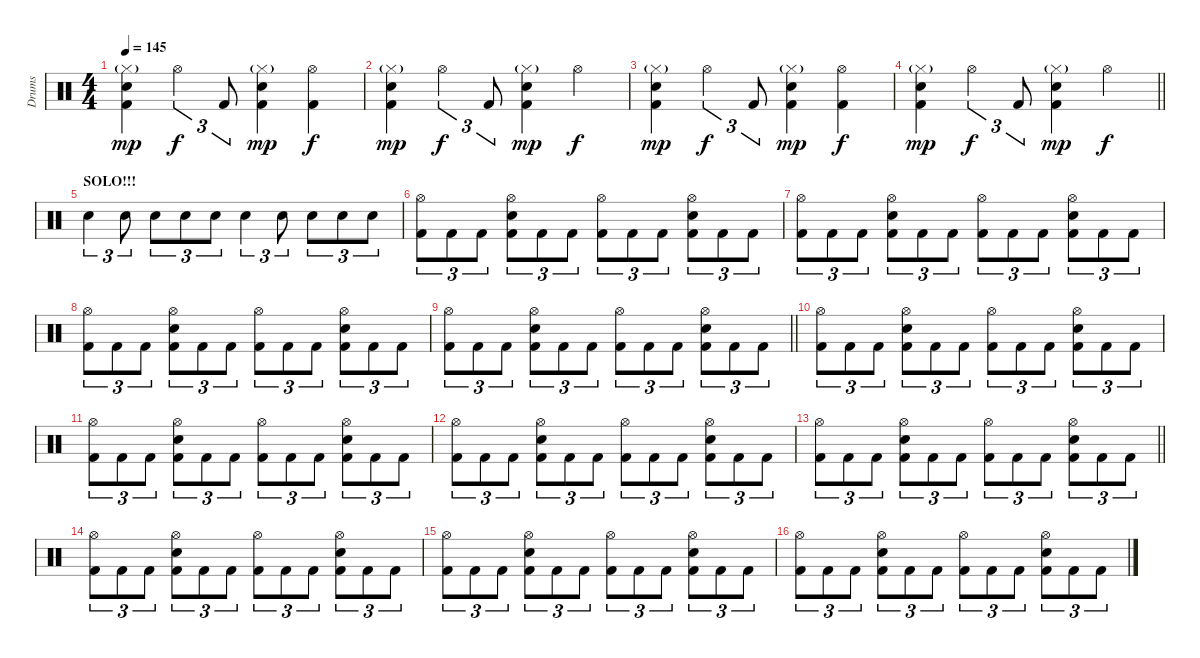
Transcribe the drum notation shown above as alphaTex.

\track ("Drums" "Drums") {instrument percussion}
\staff {score}
\articulation defaults
\ts (4 4)
\tempo 145
\clef neutral
\ks c
("Hi-Hat (closed)"{g} "Electric Snare (hit)" "Kick (hit) 2").4{dy mp} "Hi-Hat (open)".4{tu (3 2) dy f} "Kick (hit) 2".8{tu (3 2)} ("Hi-Hat (closed)"{g} "Electric Snare (hit)" "Kick (hit) 2").4{dy mp} ("Hi-Hat (open)" "Kick (hit) 2").4{dy f} |
("Hi-Hat (closed)"{g} "Electric Snare (hit)" "Kick (hit) 2").4{dy mp} "Hi-Hat (open)".4{tu (3 2) dy f} "Kick (hit) 2".8{tu (3 2)} ("Hi-Hat (closed)"{g} "Electric Snare (hit)" "Kick (hit) 2").4{dy mp} "Hi-Hat (open)".4{dy f} |
("Hi-Hat (closed)"{g} "Electric Snare (hit)" "Kick (hit) 2").4{dy mp} "Hi-Hat (open)".4{tu (3 2) dy f} "Kick (hit) 2".8{tu (3 2)} ("Hi-Hat (closed)"{g} "Electric Snare (hit)" "Kick (hit) 2").4{dy mp} ("Hi-Hat (open)" "Kick (hit) 2").4{dy f} |
\barLineRight lightlight
("Hi-Hat (closed)"{g} "Electric Snare (hit)" "Kick (hit) 2").4{dy mp} "Hi-Hat (open)".4{tu (3 2) dy f} "Kick (hit) 2".8{tu (3 2)} ("Hi-Hat (closed)"{g} "Electric Snare (hit)" "Kick (hit) 2").4{dy mp} "Hi-Hat (open)".4{dy f} |
\section ("" "SOLO!!!")
"Electric Snare (hit)".4{tu (3 2)} "Electric Snare (hit)".8{tu (3 2)} "Electric Snare (hit)".8{tu (3 2)} "Electric Snare (hit)".8{tu (3 2)} "Electric Snare (hit)".8{tu (3 2)} "Electric Snare (hit)".4{tu (3 2)} "Electric Snare (hit)".8{tu (3 2)} "Electric Snare (hit)".8{tu (3 2)} "Electric Snare (hit)".8{tu (3 2)} "Electric Snare (hit)".8{tu (3 2)} |
("Hi-Hat (open)" "Kick (hit) 2").8{tu (3 2)} "Kick (hit) 2".8{tu (3 2)} "Kick (hit) 2".8{tu (3 2)} ("Hi-Hat (open)" "Electric Snare (hit)" "Kick (hit) 2").8{tu (3 2)} "Kick (hit) 2".8{tu (3 2)} "Kick (hit) 2".8{tu (3 2)} ("Hi-Hat (open)" "Kick (hit) 2").8{tu (3 2)} "Kick (hit) 2".8{tu (3 2)} "Kick (hit) 2".8{tu (3 2)} ("Hi-Hat (open)" "Electric Snare (hit)" "Kick (hit) 2").8{tu (3 2)} "Kick (hit) 2".8{tu (3 2)} "Kick (hit) 2".8{tu (3 2)} |
("Hi-Hat (open)" "Kick (hit) 2").8{tu (3 2)} "Kick (hit) 2".8{tu (3 2)} "Kick (hit) 2".8{tu (3 2)} ("Hi-Hat (open)" "Electric Snare (hit)" "Kick (hit) 2").8{tu (3 2)} "Kick (hit) 2".8{tu (3 2)} "Kick (hit) 2".8{tu (3 2)} ("Hi-Hat (open)" "Kick (hit) 2").8{tu (3 2)} "Kick (hit) 2".8{tu (3 2)} "Kick (hit) 2".8{tu (3 2)} ("Hi-Hat (open)" "Electric Snare (hit)" "Kick (hit) 2").8{tu (3 2)} "Kick (hit) 2".8{tu (3 2)} "Kick (hit) 2".8{tu (3 2)} |
("Hi-Hat (open)" "Kick (hit) 2").8{tu (3 2)} "Kick (hit) 2".8{tu (3 2)} "Kick (hit) 2".8{tu (3 2)} ("Hi-Hat (open)" "Electric Snare (hit)" "Kick (hit) 2").8{tu (3 2)} "Kick (hit) 2".8{tu (3 2)} "Kick (hit) 2".8{tu (3 2)} ("Hi-Hat (open)" "Kick (hit) 2").8{tu (3 2)} "Kick (hit) 2".8{tu (3 2)} "Kick (hit) 2".8{tu (3 2)} ("Hi-Hat (open)" "Electric Snare (hit)" "Kick (hit) 2").8{tu (3 2)} "Kick (hit) 2".8{tu (3 2)} "Kick (hit) 2".8{tu (3 2)} |
\barLineRight lightlight
("Hi-Hat (open)" "Kick (hit) 2").8{tu (3 2)} "Kick (hit) 2".8{tu (3 2)} "Kick (hit) 2".8{tu (3 2)} ("Hi-Hat (open)" "Electric Snare (hit)" "Kick (hit) 2").8{tu (3 2)} "Kick (hit) 2".8{tu (3 2)} "Kick (hit) 2".8{tu (3 2)} ("Hi-Hat (open)" "Kick (hit) 2").8{tu (3 2)} "Kick (hit) 2".8{tu (3 2)} "Kick (hit) 2".8{tu (3 2)} ("Hi-Hat (open)" "Electric Snare (hit)" "Kick (hit) 2").8{tu (3 2)} "Kick (hit) 2".8{tu (3 2)} "Kick (hit) 2".8{tu (3 2)} |
\section ("" "")
("Hi-Hat (open)" "Kick (hit) 2").8{tu (3 2)} "Kick (hit) 2".8{tu (3 2)} "Kick (hit) 2".8{tu (3 2)} ("Hi-Hat (open)" "Electric Snare (hit)" "Kick (hit) 2").8{tu (3 2)} "Kick (hit) 2".8{tu (3 2)} "Kick (hit) 2".8{tu (3 2)} ("Hi-Hat (open)" "Kick (hit) 2").8{tu (3 2)} "Kick (hit) 2".8{tu (3 2)} "Kick (hit) 2".8{tu (3 2)} ("Hi-Hat (open)" "Electric Snare (hit)" "Kick (hit) 2").8{tu (3 2)} "Kick (hit) 2".8{tu (3 2)} "Kick (hit) 2".8{tu (3 2)} |
("Hi-Hat (open)" "Kick (hit) 2").8{tu (3 2)} "Kick (hit) 2".8{tu (3 2)} "Kick (hit) 2".8{tu (3 2)} ("Hi-Hat (open)" "Electric Snare (hit)" "Kick (hit) 2").8{tu (3 2)} "Kick (hit) 2".8{tu (3 2)} "Kick (hit) 2".8{tu (3 2)} ("Hi-Hat (open)" "Kick (hit) 2").8{tu (3 2)} "Kick (hit) 2".8{tu (3 2)} "Kick (hit) 2".8{tu (3 2)} ("Hi-Hat (open)" "Electric Snare (hit)" "Kick (hit) 2").8{tu (3 2)} "Kick (hit) 2".8{tu (3 2)} "Kick (hit) 2".8{tu (3 2)} |
("Hi-Hat (open)" "Kick (hit) 2").8{tu (3 2)} "Kick (hit) 2".8{tu (3 2)} "Kick (hit) 2".8{tu (3 2)} ("Hi-Hat (open)" "Electric Snare (hit)" "Kick (hit) 2").8{tu (3 2)} "Kick (hit) 2".8{tu (3 2)} "Kick (hit) 2".8{tu (3 2)} ("Hi-Hat (open)" "Kick (hit) 2").8{tu (3 2)} "Kick (hit) 2".8{tu (3 2)} "Kick (hit) 2".8{tu (3 2)} ("Hi-Hat (open)" "Electric Snare (hit)" "Kick (hit) 2").8{tu (3 2)} "Kick (hit) 2".8{tu (3 2)} "Kick (hit) 2".8{tu (3 2)} |
\barLineRight lightlight
("Hi-Hat (open)" "Kick (hit) 2").8{tu (3 2)} "Kick (hit) 2".8{tu (3 2)} "Kick (hit) 2".8{tu (3 2)} ("Hi-Hat (open)" "Electric Snare (hit)" "Kick (hit) 2").8{tu (3 2)} "Kick (hit) 2".8{tu (3 2)} "Kick (hit) 2".8{tu (3 2)} ("Hi-Hat (open)" "Kick (hit) 2").8{tu (3 2)} "Kick (hit) 2".8{tu (3 2)} "Kick (hit) 2".8{tu (3 2)} ("Hi-Hat (open)" "Electric Snare (hit)" "Kick (hit) 2").8{tu (3 2)} "Kick (hit) 2".8{tu (3 2)} "Kick (hit) 2".8{tu (3 2)} |
\section ("" "")
("Hi-Hat (open)" "Kick (hit) 2").8{tu (3 2)} "Kick (hit) 2".8{tu (3 2)} "Kick (hit) 2".8{tu (3 2)} ("Hi-Hat (open)" "Electric Snare (hit)" "Kick (hit) 2").8{tu (3 2)} "Kick (hit) 2".8{tu (3 2)} "Kick (hit) 2".8{tu (3 2)} ("Hi-Hat (open)" "Kick (hit) 2").8{tu (3 2)} "Kick (hit) 2".8{tu (3 2)} "Kick (hit) 2".8{tu (3 2)} ("Hi-Hat (open)" "Electric Snare (hit)" "Kick (hit) 2").8{tu (3 2)} "Kick (hit) 2".8{tu (3 2)} "Kick (hit) 2".8{tu (3 2)} |
("Hi-Hat (open)" "Kick (hit) 2").8{tu (3 2)} "Kick (hit) 2".8{tu (3 2)} "Kick (hit) 2".8{tu (3 2)} ("Hi-Hat (open)" "Electric Snare (hit)" "Kick (hit) 2").8{tu (3 2)} "Kick (hit) 2".8{tu (3 2)} "Kick (hit) 2".8{tu (3 2)} ("Hi-Hat (open)" "Kick (hit) 2").8{tu (3 2)} "Kick (hit) 2".8{tu (3 2)} "Kick (hit) 2".8{tu (3 2)} ("Hi-Hat (open)" "Electric Snare (hit)" "Kick (hit) 2").8{tu (3 2)} "Kick (hit) 2".8{tu (3 2)} "Kick (hit) 2".8{tu (3 2)} |
("Hi-Hat (open)" "Kick (hit) 2").8{tu (3 2)} "Kick (hit) 2".8{tu (3 2)} "Kick (hit) 2".8{tu (3 2)} ("Hi-Hat (open)" "Electric Snare (hit)" "Kick (hit) 2").8{tu (3 2)} "Kick (hit) 2".8{tu (3 2)} "Kick (hit) 2".8{tu (3 2)} ("Hi-Hat (open)" "Kick (hit) 2").8{tu (3 2)} "Kick (hit) 2".8{tu (3 2)} "Kick (hit) 2".8{tu (3 2)} ("Hi-Hat (open)" "Electric Snare (hit)" "Kick (hit) 2").8{tu (3 2)} "Kick (hit) 2".8{tu (3 2)} "Kick (hit) 2".8{tu (3 2)}
